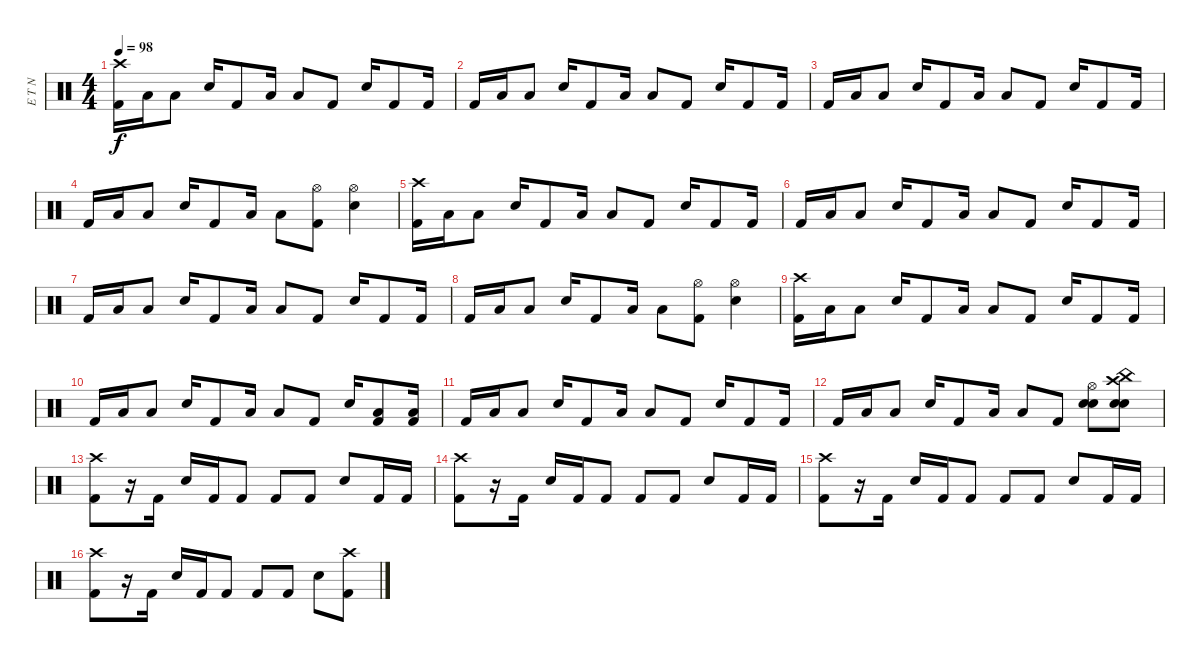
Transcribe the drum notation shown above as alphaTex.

\track ("E T N" "E T N") {instrument percussion}
\staff {score}
\articulation defaults
\ts (4 4)
\tempo 98
\clef neutral
\ks c
("Crash high (hit)" "Kick (hit) 2").16{dy f} "Low Tom (hit)".16 "Low Floor Tom (hit)".8 "Electric Snare (hit)".16 "Kick (hit) 2".8 "Low Tom (hit)".16 "Low Floor Tom (hit)".8 "Kick (hit) 2".8 "Electric Snare (hit)".16 "Kick (hit) 2".8 "Kick (hit) 2".16 |
"Kick (hit) 2".16 "Low Tom (hit)".16 "Low Floor Tom (hit)".8 "Electric Snare (hit)".16 "Kick (hit) 2".8 "Low Tom (hit)".16 "Low Floor Tom (hit)".8 "Kick (hit) 2".8 "Electric Snare (hit)".16 "Kick (hit) 2".8 "Kick (hit) 2".16 |
"Kick (hit) 2".16 "Low Tom (hit)".16 "Low Floor Tom (hit)".8 "Electric Snare (hit)".16 "Kick (hit) 2".8 "Low Tom (hit)".16 "Low Floor Tom (hit)".8 "Kick (hit) 2".8 "Electric Snare (hit)".16 "Kick (hit) 2".8 "Kick (hit) 2".16 |
"Kick (hit) 2".16 "Low Tom (hit)".16 "Low Floor Tom (hit)".8 "Electric Snare (hit)".16 "Kick (hit) 2".8 "Low Tom (hit)".16 "Low Floor Tom (hit)".8 ("Hi-Hat (open)" "Kick (hit) 2").8 ("Hi-Hat (open)" "Electric Snare (hit)").4 |
("Crash high (hit)" "Kick (hit) 2").16 "Low Tom (hit)".16 "Low Floor Tom (hit)".8 "Electric Snare (hit)".16 "Kick (hit) 2".8 "Low Tom (hit)".16 "Low Floor Tom (hit)".8 "Kick (hit) 2".8 "Electric Snare (hit)".16 "Kick (hit) 2".8 "Kick (hit) 2".16 |
"Kick (hit) 2".16 "Low Tom (hit)".16 "Low Floor Tom (hit)".8 "Electric Snare (hit)".16 "Kick (hit) 2".8 "Low Tom (hit)".16 "Low Floor Tom (hit)".8 "Kick (hit) 2".8 "Electric Snare (hit)".16 "Kick (hit) 2".8 "Kick (hit) 2".16 |
"Kick (hit) 2".16 "Low Tom (hit)".16 "Low Floor Tom (hit)".8 "Electric Snare (hit)".16 "Kick (hit) 2".8 "Low Tom (hit)".16 "Low Floor Tom (hit)".8 "Kick (hit) 2".8 "Electric Snare (hit)".16 "Kick (hit) 2".8 "Kick (hit) 2".16 |
"Kick (hit) 2".16 "Low Tom (hit)".16 "Low Floor Tom (hit)".8 "Electric Snare (hit)".16 "Kick (hit) 2".8 "Low Tom (hit)".16 "Low Floor Tom (hit)".8 ("Hi-Hat (open)" "Kick (hit) 2").8 ("Hi-Hat (open)" "Electric Snare (hit)").4 |
("Crash high (hit)" "Kick (hit) 2").16 "Low Tom (hit)".16 "Low Floor Tom (hit)".8 "Electric Snare (hit)".16 "Kick (hit) 2".8 "Low Tom (hit)".16 "Low Floor Tom (hit)".8 "Kick (hit) 2".8 "Electric Snare (hit)".16 "Kick (hit) 2".8 "Kick (hit) 2".16 |
"Kick (hit) 2".16 "Low Tom (hit)".16 "Low Floor Tom (hit)".8 "Electric Snare (hit)".16 "Kick (hit) 2".8 "Low Tom (hit)".16 "Low Floor Tom (hit)".8 "Kick (hit) 2".8 "Electric Snare (hit)".16 ("Low Floor Tom (hit)" "Kick (hit) 2").8 ("Low Floor Tom (hit)" "Kick (hit) 2").16 |
"Kick (hit) 2".16 "Low Tom (hit)".16 "Low Floor Tom (hit)".8 "Electric Snare (hit)".16 "Kick (hit) 2".8 "Low Tom (hit)".16 "Low Floor Tom (hit)".8 "Kick (hit) 2".8 "Electric Snare (hit)".16 "Kick (hit) 2".8 "Kick (hit) 2".16 |
"Kick (hit) 2".16 "Low Tom (hit)".16 "Low Floor Tom (hit)".8 "Electric Snare (hit)".16 "Kick (hit) 2".8 "Low Tom (hit)".16 "Low Floor Tom (hit)".8 "Kick (hit) 2".8 ("Hi-Hat (open)" "Electric Snare (hit)" "Electric Snare (hit)").8 ("Crash high (hit)" "China (hit)" "Electric Snare (hit)" "Electric Snare (hit)").8 |
("Crash high (hit)" "Kick (hit) 2").8 r.16 "Kick (hit) 2".16 "Electric Snare (hit)".16 "Kick (hit) 2".16 "Kick (hit) 2".8 "Kick (hit) 2".8 "Kick (hit) 2".8 "Electric Snare (hit)".8 "Kick (hit) 2".16 "Kick (hit) 2".16 |
("Crash high (hit)" "Kick (hit) 2").8 r.16 "Kick (hit) 2".16 "Electric Snare (hit)".16 "Kick (hit) 2".16 "Kick (hit) 2".8 "Kick (hit) 2".8 "Kick (hit) 2".8 "Electric Snare (hit)".8 "Kick (hit) 2".16 "Kick (hit) 2".16 |
("Crash high (hit)" "Kick (hit) 2").8 r.16 "Kick (hit) 2".16 "Electric Snare (hit)".16 "Kick (hit) 2".16 "Kick (hit) 2".8 "Kick (hit) 2".8 "Kick (hit) 2".8 "Electric Snare (hit)".8 "Kick (hit) 2".16 "Kick (hit) 2".16 |
("Crash high (hit)" "Kick (hit) 2").8 r.16 "Kick (hit) 2".16 "Electric Snare (hit)".16 "Kick (hit) 2".16 "Kick (hit) 2".8 "Kick (hit) 2".8 "Kick (hit) 2".8 "Electric Snare (hit)".8 ("Crash high (hit)" "Kick (hit) 2").8
